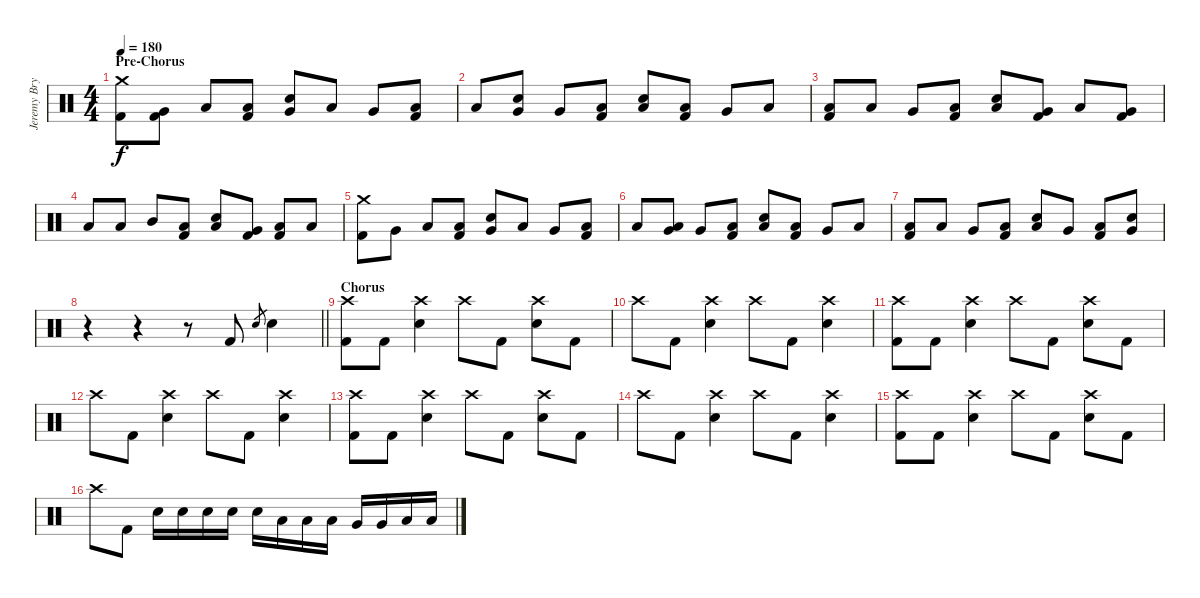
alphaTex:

\track ("Jeremy Bryan - Drums" "Jeremy Bry") {instrument percussion}
\staff {score}
\articulation defaults
\ts (4 4)
\section ("" "Pre-Chorus")
\tempo 180
\clef neutral
\ks c
("Crash medium (hit)" "Kick (hit) 2").8{dy f} ("Very Low Tom (hit)" "Kick (hit) 2").8 "Low Floor Tom (hit)".8 ("Low Floor Tom (hit)" "Kick (hit) 2").8 ("Very Low Tom (hit)" "Electric Snare (hit)").8 "Low Tom (hit)".8 "Very Low Tom (hit)".8 ("Low Floor Tom (hit)" "Kick (hit) 2").8 |
"Low Floor Tom (hit)".8 ("Very Low Tom (hit)" "Electric Snare (hit)").8 "Very Low Tom (hit)".8 ("Low Floor Tom (hit)" "Kick (hit) 2").8 ("Low Floor Tom (hit)" "Electric Snare (hit)").8 ("Low Tom (hit)" "Kick (hit) 2").8 "Very Low Tom (hit)".8 "Low Floor Tom (hit)".8 |
("Low Floor Tom (hit)" "Kick (hit) 2").8 "Low Floor Tom (hit)".8 "Very Low Tom (hit)".8 ("Low Floor Tom (hit)" "Kick (hit) 2").8 ("Low Floor Tom (hit)" "Electric Snare (hit)").8 ("Very Low Tom (hit)" "Kick (hit) 2").8 "Low Tom (hit)".8 ("Very Low Tom (hit)" "Kick (hit) 2").8 |
"Low Floor Tom (hit)".8 "Low Floor Tom (hit)".8 "Mid Tom (hit)".8 ("Low Tom (hit)" "Kick (hit) 2").8 ("Low Floor Tom (hit)" "Electric Snare (hit)").8 ("Very Low Tom (hit)" "Kick (hit) 2").8 ("Low Floor Tom (hit)" "Kick (hit) 2").8 "Low Floor Tom (hit)".8 |
("Crash medium (hit)" "Kick (hit) 2").8 "Very Low Tom (hit)".8 "Low Floor Tom (hit)".8 ("Low Floor Tom (hit)" "Kick (hit) 2").8 ("Very Low Tom (hit)" "Electric Snare (hit)").8 "Low Tom (hit)".8 "Very Low Tom (hit)".8 ("Low Floor Tom (hit)" "Kick (hit) 2").8 |
"Low Floor Tom (hit)".8 ("Very Low Tom (hit)" "Low Tom (hit)").8 "Very Low Tom (hit)".8 ("Low Floor Tom (hit)" "Kick (hit) 2").8 ("Low Floor Tom (hit)" "Electric Snare (hit)").8 ("Low Tom (hit)" "Kick (hit) 2").8 "Very Low Tom (hit)".8 "Low Floor Tom (hit)".8 |
("Low Floor Tom (hit)" "Kick (hit) 2").8 "Low Floor Tom (hit)".8 "Very Low Tom (hit)".8 ("Low Floor Tom (hit)" "Kick (hit) 2").8 ("Low Floor Tom (hit)" "Electric Snare (hit)").8 "Very Low Tom (hit)".8 ("Low Tom (hit)" "Kick (hit) 2").8 ("Very Low Tom (hit)" "Electric Snare (hit)").8 |
\barLineRight lightlight
r.4 r.4 r.8 "Kick (hit) 2".8 "Electric Snare (hit)".8{gr} "Electric Snare (hit)".4 |
\section ("" "Chorus")
("Crash high (hit)" "Kick (hit) 2").8 "Kick (hit) 2".8 ("Crash high (hit)" "Electric Snare (hit)").4 "Crash high (hit)".8 "Kick (hit) 2".8 ("Crash high (hit)" "Electric Snare (hit)").8 "Kick (hit) 2".8 |
"Crash high (hit)".8 "Kick (hit) 2".8 ("Crash high (hit)" "Electric Snare (hit)").4 "Crash high (hit)".8 "Kick (hit) 2".8 ("Crash high (hit)" "Electric Snare (hit)").4 |
("Crash high (hit)" "Kick (hit) 2").8 "Kick (hit) 2".8 ("Crash high (hit)" "Electric Snare (hit)").4 "Crash high (hit)".8 "Kick (hit) 2".8 ("Crash high (hit)" "Electric Snare (hit)").8 "Kick (hit) 2".8 |
"Crash high (hit)".8 "Kick (hit) 2".8 ("Crash high (hit)" "Electric Snare (hit)").4 "Crash high (hit)".8 "Kick (hit) 2".8 ("Crash high (hit)" "Electric Snare (hit)").4 |
("Crash high (hit)" "Kick (hit) 2").8 "Kick (hit) 2".8 ("Crash high (hit)" "Electric Snare (hit)").4 "Crash high (hit)".8 "Kick (hit) 2".8 ("Crash high (hit)" "Electric Snare (hit)").8 "Kick (hit) 2".8 |
"Crash high (hit)".8 "Kick (hit) 2".8 ("Crash high (hit)" "Electric Snare (hit)").4 "Crash high (hit)".8 "Kick (hit) 2".8 ("Crash high (hit)" "Electric Snare (hit)").4 |
("Crash high (hit)" "Kick (hit) 2").8 "Kick (hit) 2".8 ("Crash high (hit)" "Electric Snare (hit)").4 "Crash high (hit)".8 "Kick (hit) 2".8 ("Crash high (hit)" "Electric Snare (hit)").8 "Kick (hit) 2".8 |
"Crash high (hit)".8 "Kick (hit) 2".8 "Electric Snare (hit)".16 "Electric Snare (hit)".16 "Electric Snare (hit)".16 "Electric Snare (hit)".16 "Electric Snare (hit)".16 "Low Tom (hit)".16 "Low Tom (hit)".16 "Low Tom (hit)".16 "Very Low Tom (hit)".16 "Very Low Tom (hit)".16 "Low Floor Tom (hit)".16 "Low Floor Tom (hit)".16
